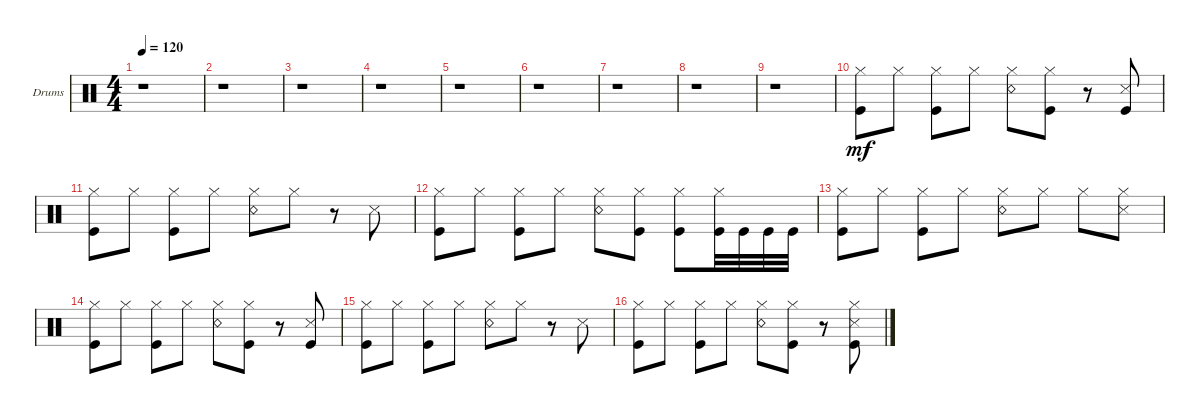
\defaultSystemsLayout 4
\bracketExtendMode groupsimilarinstruments
\firstSystemTrackNameOrientation horizontal
\otherSystemsTrackNameOrientation horizontal
\track ("Drumkit" "Drums") {instrument percussion}
\staff {score}
\articulation defaults
\ts (4 4)
\tempo 120
\clef neutral
\scale
0.472222
\ks c
r.1{dy mf} |
\scale
0.263889 r.1 |
\scale
0.263889 r.1 |
\scale
0.333333 r.1 |
\scale
0.333333 r.1 |
\scale
0.333333 r.1 |
\scale
0.333333 r.1 |
\scale
0.333333 r.1 |
\scale
0.333333 r.1 |
\scale
0.333333 ("Hi-Hat (closed)" "Kick (hit)").8 "Hi-Hat (closed)".8 ("Hi-Hat (closed)" "Kick (hit)").8 "Hi-Hat (closed)".8 ("Hi-Hat (closed)" "Snare (rim shot)").8 ("Hi-Hat (closed)" "Kick (hit)").8 r.8 ("Kick (hit)" "Snare (side stick) 3").8 |
\scale
0.333333 ("Kick (hit)" "Hi-Hat (closed)").8 "Hi-Hat (closed)".8 ("Hi-Hat (closed)" "Kick (hit)").8 "Hi-Hat (closed)".8 ("Hi-Hat (closed)" "Snare (rim shot)").8 "Hi-Hat (closed)".8 r.8 "Snare (side stick) 3".8 |
\scale
0.333333 ("Kick (hit)" "Hi-Hat (closed)").8 "Hi-Hat (closed)".8 ("Hi-Hat (closed)" "Kick (hit)").8 "Hi-Hat (closed)".8 ("Hi-Hat (closed)" "Snare (rim shot)").8 ("Hi-Hat (closed)" "Kick (hit)").8 ("Kick (hit)" "Hi-Hat (closed)").8 ("Hi-Hat (closed)" "Kick (hit)").32 "Kick (hit)".32 "Kick (hit)".32 "Kick (hit)".32 |
\scale
0.333333 ("Hi-Hat (closed)" "Kick (hit)").8 "Hi-Hat (closed)".8 ("Hi-Hat (closed)" "Kick (hit)").8 "Hi-Hat (closed)".8 ("Hi-Hat (closed)" "Snare (rim shot)").8 "Hi-Hat (closed)".8 "Hi-Hat (closed)".8 ("Hi-Hat (closed)" "Snare (side stick) 3").8 |
\scale
0.333333 ("Hi-Hat (closed)" "Kick (hit)").8 "Hi-Hat (closed)".8 ("Hi-Hat (closed)" "Kick (hit)").8 "Hi-Hat (closed)".8 ("Hi-Hat (closed)" "Snare (rim shot)").8 ("Hi-Hat (closed)" "Kick (hit)").8 r.8 ("Kick (hit)" "Snare (side stick) 3").8 |
\scale
0.333333 ("Kick (hit)" "Hi-Hat (closed)").8 "Hi-Hat (closed)".8 ("Hi-Hat (closed)" "Kick (hit)").8 "Hi-Hat (closed)".8 ("Hi-Hat (closed)" "Snare (rim shot)").8 "Hi-Hat (closed)".8 r.8 "Snare (side stick) 3".8 |
\scale
0.333333 ("Kick (hit)" "Hi-Hat (closed)").8 "Hi-Hat (closed)".8 ("Hi-Hat (closed)" "Kick (hit)").8 "Hi-Hat (closed)".8 ("Hi-Hat (closed)" "Snare (rim shot)").8 ("Hi-Hat (closed)" "Kick (hit)").8 r.8 ("Kick (hit)" "Snare (side stick) 3" "Hi-Hat (closed)").8
